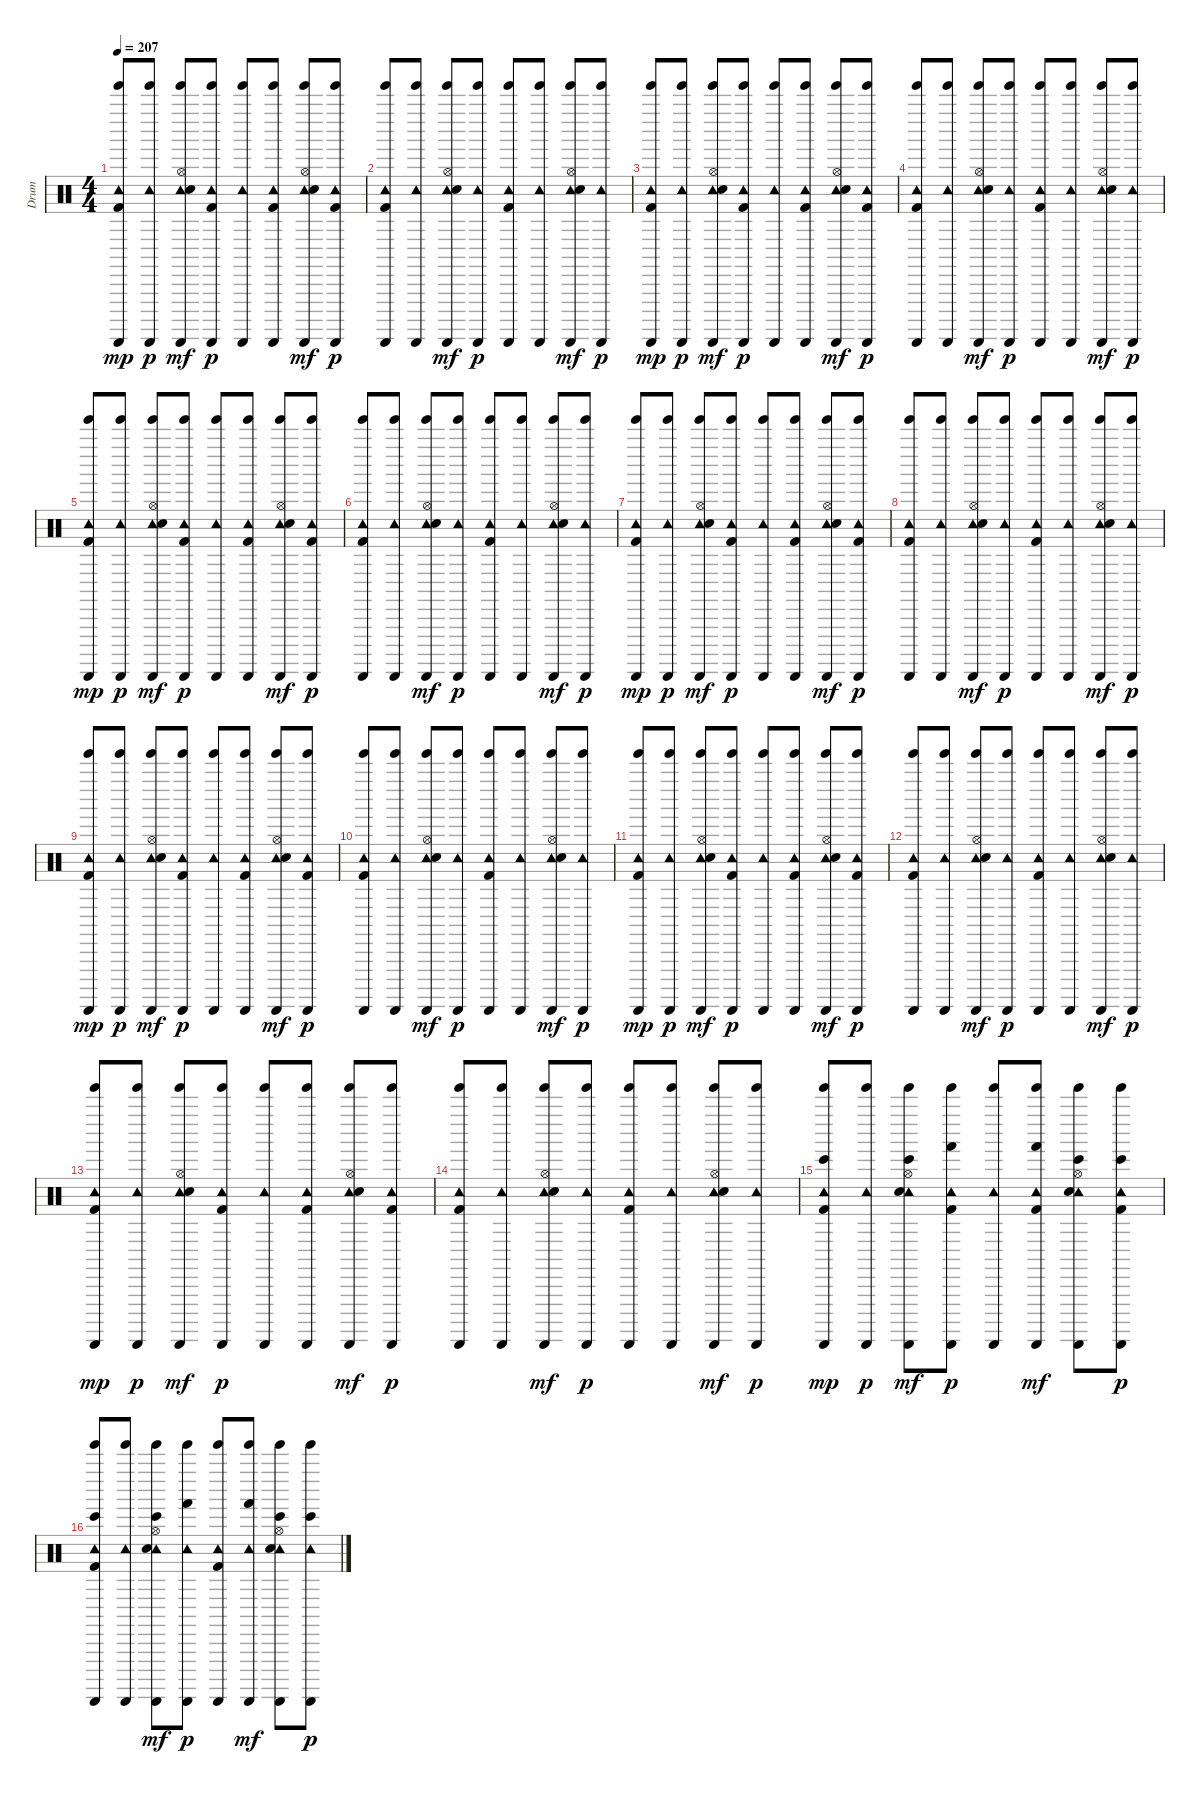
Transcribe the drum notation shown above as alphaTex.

\track ("Drum" "Drum") {instrument percussion}
\staff {score}
\articulation defaults
\ts (4 4)
\tempo 207
\clef neutral
\ks c
("Tambourine (hit)" "Kick (hit) 2" "Tinkle Bell (hit)" "Guiro (scrap-return)").8{dy mp} ("Tambourine (hit)" "Tinkle Bell (hit)" "Guiro (scrap-return)").8{dy p} ("Tambourine (hit)" "Hi-Hat (open)" "Snare (hit) 2" "Tinkle Bell (hit)" "Guiro (scrap-return)").8{dy mf} ("Tambourine (hit)" "Kick (hit) 2" "Tinkle Bell (hit)" "Guiro (scrap-return)").8{dy p} ("Tambourine (hit)" "Tinkle Bell (hit)" "Guiro (scrap-return)").8 ("Tambourine (hit)" "Kick (hit) 2" "Tinkle Bell (hit)" "Guiro (scrap-return)").8 ("Tambourine (hit)" "Hi-Hat (open)" "Snare (hit) 2" "Tinkle Bell (hit)" "Guiro (scrap-return)").8{dy mf} ("Tambourine (hit)" "Kick (hit) 2" "Tinkle Bell (hit)" "Guiro (scrap-return)").8{dy p} |
("Tambourine (hit)" "Kick (hit) 2" "Tinkle Bell (hit)" "Guiro (scrap-return)").8 ("Tambourine (hit)" "Tinkle Bell (hit)" "Guiro (scrap-return)").8 ("Tambourine (hit)" "Hi-Hat (open)" "Snare (hit) 2" "Tinkle Bell (hit)" "Guiro (scrap-return)").8{dy mf} ("Tambourine (hit)" "Tinkle Bell (hit)" "Guiro (scrap-return)").8{dy p} ("Tambourine (hit)" "Kick (hit) 2" "Tinkle Bell (hit)" "Guiro (scrap-return)").8 ("Tambourine (hit)" "Tinkle Bell (hit)" "Guiro (scrap-return)").8 ("Tambourine (hit)" "Hi-Hat (open)" "Snare (hit) 2" "Tinkle Bell (hit)" "Guiro (scrap-return)").8{dy mf} ("Tambourine (hit)" "Tinkle Bell (hit)" "Guiro (scrap-return)").8{dy p} |
("Tambourine (hit)" "Kick (hit) 2" "Tinkle Bell (hit)" "Guiro (scrap-return)").8{dy mp} ("Tambourine (hit)" "Tinkle Bell (hit)" "Guiro (scrap-return)").8{dy p} ("Tambourine (hit)" "Hi-Hat (open)" "Snare (hit) 2" "Tinkle Bell (hit)" "Guiro (scrap-return)").8{dy mf} ("Tambourine (hit)" "Kick (hit) 2" "Tinkle Bell (hit)" "Guiro (scrap-return)").8{dy p} ("Tambourine (hit)" "Tinkle Bell (hit)" "Guiro (scrap-return)").8 ("Tambourine (hit)" "Kick (hit) 2" "Tinkle Bell (hit)" "Guiro (scrap-return)").8 ("Tambourine (hit)" "Hi-Hat (open)" "Snare (hit) 2" "Tinkle Bell (hit)" "Guiro (scrap-return)").8{dy mf} ("Tambourine (hit)" "Kick (hit) 2" "Tinkle Bell (hit)" "Guiro (scrap-return)").8{dy p} |
("Tambourine (hit)" "Kick (hit) 2" "Tinkle Bell (hit)" "Guiro (scrap-return)").8 ("Tambourine (hit)" "Tinkle Bell (hit)" "Guiro (scrap-return)").8 ("Tambourine (hit)" "Hi-Hat (open)" "Snare (hit) 2" "Tinkle Bell (hit)" "Guiro (scrap-return)").8{dy mf} ("Tambourine (hit)" "Tinkle Bell (hit)" "Guiro (scrap-return)").8{dy p} ("Tambourine (hit)" "Kick (hit) 2" "Tinkle Bell (hit)" "Guiro (scrap-return)").8 ("Tambourine (hit)" "Tinkle Bell (hit)" "Guiro (scrap-return)").8 ("Tambourine (hit)" "Hi-Hat (open)" "Snare (hit) 2" "Tinkle Bell (hit)" "Guiro (scrap-return)").8{dy mf} ("Tambourine (hit)" "Tinkle Bell (hit)" "Guiro (scrap-return)").8{dy p} |
("Tambourine (hit)" "Kick (hit) 2" "Tinkle Bell (hit)" "Guiro (scrap-return)").8{dy mp} ("Tambourine (hit)" "Tinkle Bell (hit)" "Guiro (scrap-return)").8{dy p} ("Tambourine (hit)" "Hi-Hat (open)" "Snare (hit) 2" "Tinkle Bell (hit)" "Guiro (scrap-return)").8{dy mf} ("Tambourine (hit)" "Kick (hit) 2" "Tinkle Bell (hit)" "Guiro (scrap-return)").8{dy p} ("Tambourine (hit)" "Tinkle Bell (hit)" "Guiro (scrap-return)").8 ("Tambourine (hit)" "Kick (hit) 2" "Tinkle Bell (hit)" "Guiro (scrap-return)").8 ("Tambourine (hit)" "Hi-Hat (open)" "Snare (hit) 2" "Tinkle Bell (hit)" "Guiro (scrap-return)").8{dy mf} ("Tambourine (hit)" "Kick (hit) 2" "Tinkle Bell (hit)" "Guiro (scrap-return)").8{dy p} |
("Tambourine (hit)" "Kick (hit) 2" "Tinkle Bell (hit)" "Guiro (scrap-return)").8 ("Tambourine (hit)" "Tinkle Bell (hit)" "Guiro (scrap-return)").8 ("Tambourine (hit)" "Hi-Hat (open)" "Snare (hit) 2" "Tinkle Bell (hit)" "Guiro (scrap-return)").8{dy mf} ("Tambourine (hit)" "Tinkle Bell (hit)" "Guiro (scrap-return)").8{dy p} ("Tambourine (hit)" "Kick (hit) 2" "Tinkle Bell (hit)" "Guiro (scrap-return)").8 ("Tambourine (hit)" "Tinkle Bell (hit)" "Guiro (scrap-return)").8 ("Tambourine (hit)" "Hi-Hat (open)" "Snare (hit) 2" "Tinkle Bell (hit)" "Guiro (scrap-return)").8{dy mf} ("Tambourine (hit)" "Tinkle Bell (hit)" "Guiro (scrap-return)").8{dy p} |
("Tambourine (hit)" "Kick (hit) 2" "Tinkle Bell (hit)" "Guiro (scrap-return)").8{dy mp} ("Tambourine (hit)" "Tinkle Bell (hit)" "Guiro (scrap-return)").8{dy p} ("Tambourine (hit)" "Hi-Hat (open)" "Snare (hit) 2" "Tinkle Bell (hit)" "Guiro (scrap-return)").8{dy mf} ("Tambourine (hit)" "Kick (hit) 2" "Tinkle Bell (hit)" "Guiro (scrap-return)").8{dy p} ("Tambourine (hit)" "Tinkle Bell (hit)" "Guiro (scrap-return)").8 ("Tambourine (hit)" "Kick (hit) 2" "Tinkle Bell (hit)" "Guiro (scrap-return)").8 ("Tambourine (hit)" "Hi-Hat (open)" "Snare (hit) 2" "Tinkle Bell (hit)" "Guiro (scrap-return)").8{dy mf} ("Tambourine (hit)" "Kick (hit) 2" "Tinkle Bell (hit)" "Guiro (scrap-return)").8{dy p} |
("Tambourine (hit)" "Kick (hit) 2" "Tinkle Bell (hit)" "Guiro (scrap-return)").8 ("Tambourine (hit)" "Tinkle Bell (hit)" "Guiro (scrap-return)").8 ("Tambourine (hit)" "Hi-Hat (open)" "Snare (hit) 2" "Tinkle Bell (hit)" "Guiro (scrap-return)").8{dy mf} ("Tambourine (hit)" "Tinkle Bell (hit)" "Guiro (scrap-return)").8{dy p} ("Tambourine (hit)" "Kick (hit) 2" "Tinkle Bell (hit)" "Guiro (scrap-return)").8 ("Tambourine (hit)" "Tinkle Bell (hit)" "Guiro (scrap-return)").8 ("Tambourine (hit)" "Hi-Hat (open)" "Snare (hit) 2" "Tinkle Bell (hit)" "Guiro (scrap-return)").8{dy mf} ("Tambourine (hit)" "Tinkle Bell (hit)" "Guiro (scrap-return)").8{dy p} |
("Tambourine (hit)" "Kick (hit) 2" "Tinkle Bell (hit)" "Guiro (scrap-return)").8{dy mp} ("Tambourine (hit)" "Tinkle Bell (hit)" "Guiro (scrap-return)").8{dy p} ("Tambourine (hit)" "Hi-Hat (open)" "Snare (hit) 2" "Tinkle Bell (hit)" "Guiro (scrap-return)").8{dy mf} ("Tambourine (hit)" "Kick (hit) 2" "Tinkle Bell (hit)" "Guiro (scrap-return)").8{dy p} ("Tambourine (hit)" "Tinkle Bell (hit)" "Guiro (scrap-return)").8 ("Tambourine (hit)" "Kick (hit) 2" "Tinkle Bell (hit)" "Guiro (scrap-return)").8 ("Tambourine (hit)" "Hi-Hat (open)" "Snare (hit) 2" "Tinkle Bell (hit)" "Guiro (scrap-return)").8{dy mf} ("Tambourine (hit)" "Kick (hit) 2" "Tinkle Bell (hit)" "Guiro (scrap-return)").8{dy p} |
("Tambourine (hit)" "Kick (hit) 2" "Tinkle Bell (hit)" "Guiro (scrap-return)").8 ("Tambourine (hit)" "Tinkle Bell (hit)" "Guiro (scrap-return)").8 ("Tambourine (hit)" "Hi-Hat (open)" "Snare (hit) 2" "Tinkle Bell (hit)" "Guiro (scrap-return)").8{dy mf} ("Tambourine (hit)" "Tinkle Bell (hit)" "Guiro (scrap-return)").8{dy p} ("Tambourine (hit)" "Kick (hit) 2" "Tinkle Bell (hit)" "Guiro (scrap-return)").8 ("Tambourine (hit)" "Tinkle Bell (hit)" "Guiro (scrap-return)").8 ("Tambourine (hit)" "Hi-Hat (open)" "Snare (hit) 2" "Tinkle Bell (hit)" "Guiro (scrap-return)").8{dy mf} ("Tambourine (hit)" "Tinkle Bell (hit)" "Guiro (scrap-return)").8{dy p} |
("Tambourine (hit)" "Kick (hit) 2" "Tinkle Bell (hit)" "Guiro (scrap-return)").8{dy mp} ("Tambourine (hit)" "Tinkle Bell (hit)" "Guiro (scrap-return)").8{dy p} ("Tambourine (hit)" "Hi-Hat (open)" "Snare (hit) 2" "Tinkle Bell (hit)" "Guiro (scrap-return)").8{dy mf} ("Tambourine (hit)" "Kick (hit) 2" "Tinkle Bell (hit)" "Guiro (scrap-return)").8{dy p} ("Tambourine (hit)" "Tinkle Bell (hit)" "Guiro (scrap-return)").8 ("Tambourine (hit)" "Kick (hit) 2" "Tinkle Bell (hit)" "Guiro (scrap-return)").8 ("Tambourine (hit)" "Hi-Hat (open)" "Snare (hit) 2" "Tinkle Bell (hit)" "Guiro (scrap-return)").8{dy mf} ("Tambourine (hit)" "Kick (hit) 2" "Tinkle Bell (hit)" "Guiro (scrap-return)").8{dy p} |
("Tambourine (hit)" "Kick (hit) 2" "Tinkle Bell (hit)" "Guiro (scrap-return)").8 ("Tambourine (hit)" "Tinkle Bell (hit)" "Guiro (scrap-return)").8 ("Tambourine (hit)" "Hi-Hat (open)" "Snare (hit) 2" "Tinkle Bell (hit)" "Guiro (scrap-return)").8{dy mf} ("Tambourine (hit)" "Tinkle Bell (hit)" "Guiro (scrap-return)").8{dy p} ("Tambourine (hit)" "Kick (hit) 2" "Tinkle Bell (hit)" "Guiro (scrap-return)").8 ("Tambourine (hit)" "Tinkle Bell (hit)" "Guiro (scrap-return)").8 ("Tambourine (hit)" "Hi-Hat (open)" "Snare (hit) 2" "Tinkle Bell (hit)" "Guiro (scrap-return)").8{dy mf} ("Tambourine (hit)" "Tinkle Bell (hit)" "Guiro (scrap-return)").8{dy p} |
("Tambourine (hit)" "Kick (hit) 2" "Tinkle Bell (hit)" "Guiro (scrap-return)").8{dy mp} ("Tambourine (hit)" "Tinkle Bell (hit)" "Guiro (scrap-return)").8{dy p} ("Tambourine (hit)" "Hi-Hat (open)" "Snare (hit) 2" "Tinkle Bell (hit)" "Guiro (scrap-return)").8{dy mf} ("Tambourine (hit)" "Kick (hit) 2" "Tinkle Bell (hit)" "Guiro (scrap-return)").8{dy p} ("Tambourine (hit)" "Tinkle Bell (hit)" "Guiro (scrap-return)").8 ("Tambourine (hit)" "Kick (hit) 2" "Tinkle Bell (hit)" "Guiro (scrap-return)").8 ("Tambourine (hit)" "Hi-Hat (open)" "Snare (hit) 2" "Tinkle Bell (hit)" "Guiro (scrap-return)").8{dy mf} ("Tambourine (hit)" "Kick (hit) 2" "Tinkle Bell (hit)" "Guiro (scrap-return)").8{dy p} |
("Tambourine (hit)" "Kick (hit) 2" "Tinkle Bell (hit)" "Guiro (scrap-return)").8 ("Tambourine (hit)" "Tinkle Bell (hit)" "Guiro (scrap-return)").8 ("Tambourine (hit)" "Hi-Hat (open)" "Snare (hit) 2" "Tinkle Bell (hit)" "Guiro (scrap-return)").8{dy mf} ("Tambourine (hit)" "Tinkle Bell (hit)" "Guiro (scrap-return)").8{dy p} ("Tambourine (hit)" "Kick (hit) 2" "Tinkle Bell (hit)" "Guiro (scrap-return)").8 ("Tambourine (hit)" "Tinkle Bell (hit)" "Guiro (scrap-return)").8 ("Tambourine (hit)" "Hi-Hat (open)" "Snare (hit) 2" "Tinkle Bell (hit)" "Guiro (scrap-return)").8{dy mf} ("Tambourine (hit)" "Tinkle Bell (hit)" "Guiro (scrap-return)").8{dy p} |
("Tambourine (hit)" "Kick (hit) 2" "Tinkle Bell (hit)" "Guiro (scrap-return)" "Bongo High (hit)").8{dy mp} ("Tambourine (hit)" "Tinkle Bell (hit)" "Guiro (scrap-return)").8{dy p} ("Tambourine (hit)" "Hi-Hat (open)" "Snare (hit) 2" "Tinkle Bell (hit)" "Guiro (scrap-return)" "Bongo High (hit)").8{dy mf} ("Tambourine (hit)" "Kick (hit) 2" "Tinkle Bell (hit)" "Guiro (scrap-return)" "Hand (hit)").8{dy p} ("Tambourine (hit)" "Tinkle Bell (hit)" "Guiro (scrap-return)").8 ("Tambourine (hit)" "Kick (hit) 2" "Tinkle Bell (hit)" "Guiro (scrap-return)" "Hand (hit)").8{dy mf} ("Tambourine (hit)" "Hi-Hat (open)" "Snare (hit) 2" "Tinkle Bell (hit)" "Guiro (scrap-return)" "Bongo High (hit)").8 ("Tambourine (hit)" "Kick (hit) 2" "Tinkle Bell (hit)" "Guiro (scrap-return)" "Bongo High (hit)").8{dy p} |
("Tambourine (hit)" "Kick (hit) 2" "Tinkle Bell (hit)" "Guiro (scrap-return)" "Bongo High (hit)").8 ("Tambourine (hit)" "Tinkle Bell (hit)" "Guiro (scrap-return)").8 ("Tambourine (hit)" "Hi-Hat (open)" "Snare (hit) 2" "Tinkle Bell (hit)" "Guiro (scrap-return)" "Bongo High (hit)").8{dy mf} ("Tambourine (hit)" "Tinkle Bell (hit)" "Guiro (scrap-return)" "Hand (hit)").8{dy p} ("Tambourine (hit)" "Kick (hit) 2" "Tinkle Bell (hit)" "Guiro (scrap-return)").8 ("Tambourine (hit)" "Tinkle Bell (hit)" "Guiro (scrap-return)" "Hand (hit)").8{dy mf} ("Tambourine (hit)" "Hi-Hat (open)" "Snare (hit) 2" "Tinkle Bell (hit)" "Guiro (scrap-return)" "Bongo High (hit)").8 ("Tambourine (hit)" "Tinkle Bell (hit)" "Guiro (scrap-return)" "Bongo High (hit)").8{dy p}
